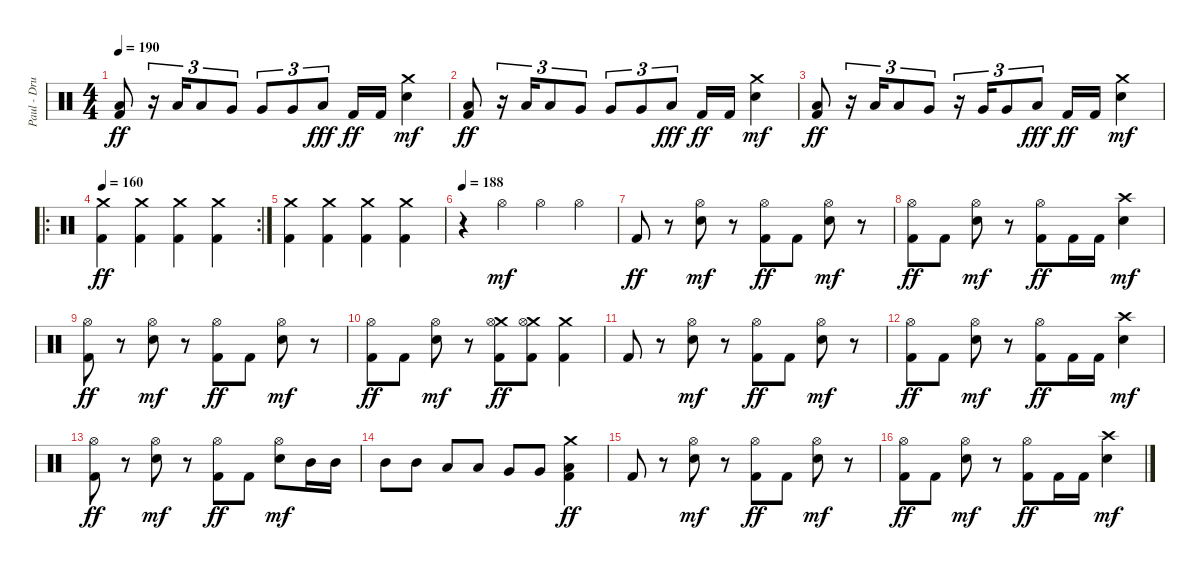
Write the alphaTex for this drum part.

\track ("Paul - Drums" "Paul - Dru") {instrument percussion}
\staff {score}
\articulation defaults
\ts (4 4)
\tempo 190
\clef neutral
\ks c
("Low Tom (hit)" "Kick (hit) 2").8{dy ff} r.16{tu (3 2)} "Low Tom (hit)".16{tu (3 2)} "Low Tom (hit)".8{tu (3 2)} "Very Low Tom (hit)".8{tu (3 2)} "Very Low Tom (hit)".8{tu (3 2)} "Very Low Tom (hit)".8{tu (3 2)} "Low Floor Tom (hit)".8{tu (3 2) dy fff} "Kick (hit) 2".16{dy ff} "Kick (hit) 2".16 ("Crash medium (hit)" "Electric Snare (hit)").4{dy mf} |
("Low Tom (hit)" "Kick (hit) 2").8{dy ff} r.16{tu (3 2)} "Low Tom (hit)".16{tu (3 2)} "Low Tom (hit)".8{tu (3 2)} "Very Low Tom (hit)".8{tu (3 2)} "Very Low Tom (hit)".8{tu (3 2)} "Very Low Tom (hit)".8{tu (3 2)} "Low Floor Tom (hit)".8{tu (3 2) dy fff} "Kick (hit) 2".16{dy ff} "Kick (hit) 2".16 ("Crash medium (hit)" "Electric Snare (hit)").4{dy mf} |
("Low Tom (hit)" "Kick (hit) 2").8{dy ff} r.16{tu (3 2)} "Low Tom (hit)".16{tu (3 2)} "Low Tom (hit)".8{tu (3 2)} "Very Low Tom (hit)".8{tu (3 2)} r.16{tu (3 2)} "Very Low Tom (hit)".16{tu (3 2)} "Very Low Tom (hit)".8{tu (3 2)} "Low Floor Tom (hit)".8{tu (3 2) dy fff} "Kick (hit) 2".16{dy ff} "Kick (hit) 2".16 ("Crash medium (hit)" "Electric Snare (hit)").4{dy mf} |
\ro
\rc 2
\tempo 160
("Crash medium (hit)" "Kick (hit) 2").4{dy ff} ("Crash medium (hit)" "Kick (hit) 2").4 ("Crash medium (hit)" "Kick (hit) 2").4 ("Crash medium (hit)" "Kick (hit) 2").4 |
("Crash medium (hit)" "Kick (hit) 2").4 ("Crash medium (hit)" "Kick (hit) 2").4 ("Crash medium (hit)" "Kick (hit) 2").4 ("Crash medium (hit)" "Kick (hit) 2").4 |
\tempo 188
r.4 "Hi-Hat (open)".4{dy mf} "Hi-Hat (open)".4 "Hi-Hat (open)".4 |
"Kick (hit) 2".8{dy ff} r.8 ("Hi-Hat (open)" "Electric Snare (hit)").8{dy mf} r.8 ("Hi-Hat (open)" "Kick (hit) 2").8{dy ff} "Kick (hit) 2".8 ("Hi-Hat (open)" "Electric Snare (hit)").8{dy mf} r.8 |
("Hi-Hat (open)" "Kick (hit) 2").8{dy ff} "Kick (hit) 2".8 ("Hi-Hat (open)" "Electric Snare (hit)").8{dy mf} r.8 ("Hi-Hat (open)" "Kick (hit) 2").8{dy ff} "Kick (hit) 2".16 "Kick (hit) 2".16 ("Crash high (hit)" "Electric Snare (hit)").4{dy mf} |
("Hi-Hat (open)" "Kick (hit) 2").8{dy ff} r.8 ("Hi-Hat (open)" "Electric Snare (hit)").8{dy mf} r.8 ("Hi-Hat (open)" "Kick (hit) 2").8{dy ff} "Kick (hit) 2".8 ("Hi-Hat (open)" "Electric Snare (hit)").8{dy mf} r.8 |
("Hi-Hat (open)" "Kick (hit) 2").8{dy ff} "Kick (hit) 2".8 ("Hi-Hat (open)" "Electric Snare (hit)").8{dy mf} r.8 ("Crash medium (hit)" "Hi-Hat (open)" "Kick (hit) 2").8{dy ff} ("Crash medium (hit)" "Hi-Hat (open)" "Kick (hit) 2").8 ("Crash medium (hit)" "Kick (hit) 2").4 |
"Kick (hit) 2".8 r.8 ("Hi-Hat (open)" "Electric Snare (hit)").8{dy mf} r.8 ("Hi-Hat (open)" "Kick (hit) 2").8{dy ff} "Kick (hit) 2".8 ("Hi-Hat (open)" "Electric Snare (hit)").8{dy mf} r.8 |
("Hi-Hat (open)" "Kick (hit) 2").8{dy ff} "Kick (hit) 2".8 ("Hi-Hat (open)" "Electric Snare (hit)").8{dy mf} r.8 ("Hi-Hat (open)" "Kick (hit) 2").8{dy ff} "Kick (hit) 2".16 "Kick (hit) 2".16 ("Crash high (hit)" "Electric Snare (hit)").4{dy mf} |
("Hi-Hat (open)" "Kick (hit) 2").8{dy ff} r.8 ("Hi-Hat (open)" "Electric Snare (hit)").8{dy mf} r.8 ("Hi-Hat (open)" "Kick (hit) 2").8{dy ff} "Kick (hit) 2".8 ("Hi-Hat (open)" "Electric Snare (hit)").8{dy mf} "Mid Tom (hit)".16 "Mid Tom (hit)".16 |
"Mid Tom (hit)".8 "Mid Tom (hit)".8 "Low Tom (hit)".8 "Low Tom (hit)".8 "Very Low Tom (hit)".8 "Very Low Tom (hit)".8 ("Crash medium (hit)" "Low Floor Tom (hit)" "Kick (hit) 2").4{dy ff} |
"Kick (hit) 2".8 r.8 ("Hi-Hat (open)" "Electric Snare (hit)").8{dy mf} r.8 ("Hi-Hat (open)" "Kick (hit) 2").8{dy ff} "Kick (hit) 2".8 ("Hi-Hat (open)" "Electric Snare (hit)").8{dy mf} r.8 |
("Hi-Hat (open)" "Kick (hit) 2").8{dy ff} "Kick (hit) 2".8 ("Hi-Hat (open)" "Electric Snare (hit)").8{dy mf} r.8 ("Hi-Hat (open)" "Kick (hit) 2").8{dy ff} "Kick (hit) 2".16 "Kick (hit) 2".16 ("Crash high (hit)" "Electric Snare (hit)").4{dy mf}
